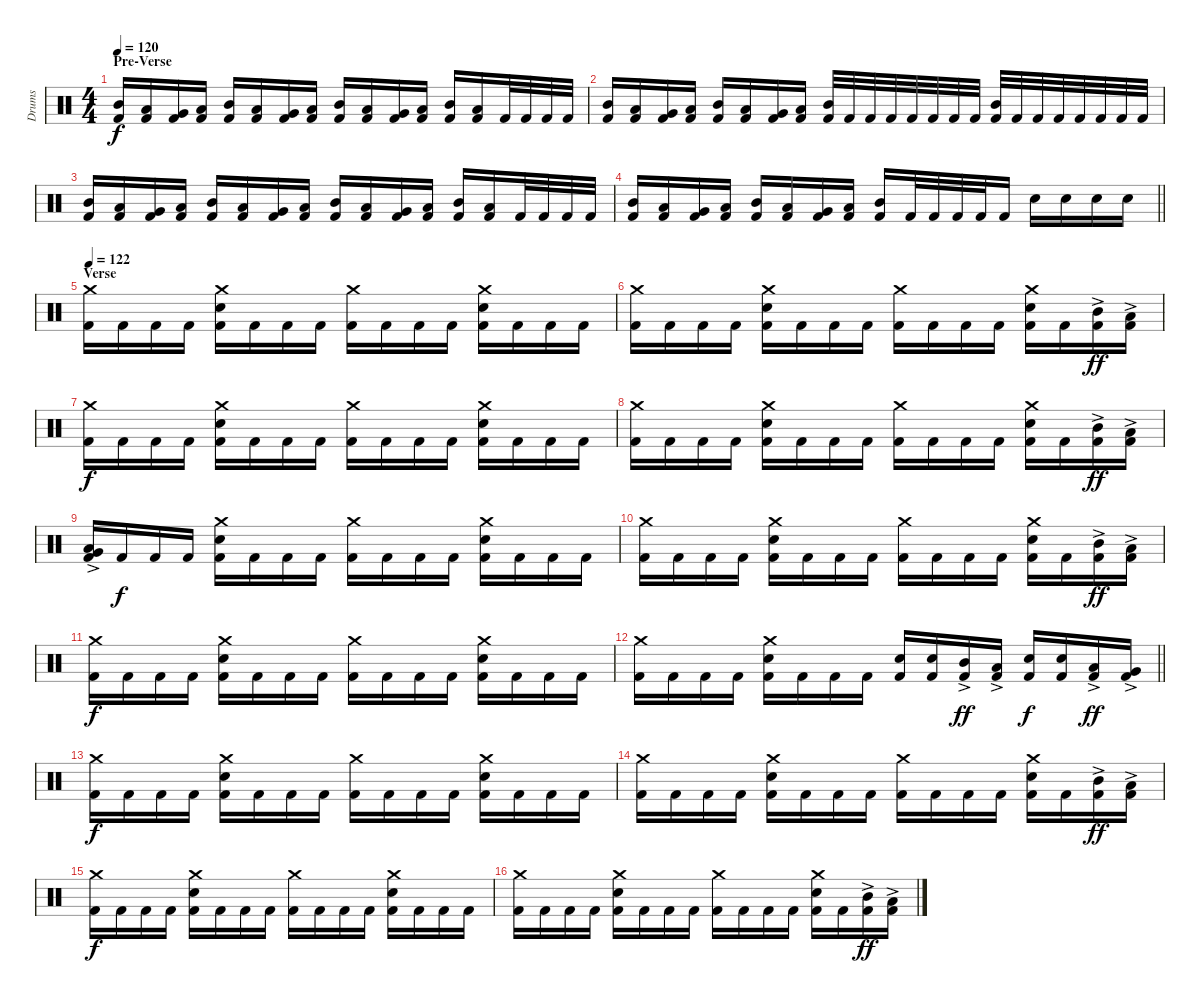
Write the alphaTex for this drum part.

\track ("Drums" "Drums") {instrument percussion}
\staff {score}
\articulation defaults
\ts (4 4)
\section ("" "Pre-Verse")
\tempo 120
\clef neutral
\ks c
("Kick (hit) 2" "Mid Tom (hit)").16{dy f volume 10} ("Kick (hit) 2" "Low Tom (hit)").16 ("Kick (hit) 2" "Very Low Tom (hit)").16 ("Kick (hit) 2" "Low Floor Tom (hit)").16 ("Kick (hit) 2" "Mid Tom (hit)").16 ("Kick (hit) 2" "Low Tom (hit)").16 ("Kick (hit) 2" "Very Low Tom (hit)").16 ("Kick (hit) 2" "Low Floor Tom (hit)").16 ("Kick (hit) 2" "Mid Tom (hit)").16 ("Kick (hit) 2" "Low Tom (hit)").16 ("Kick (hit) 2" "Very Low Tom (hit)").16 ("Kick (hit) 2" "Low Floor Tom (hit)").16 ("Kick (hit) 2" "Mid Tom (hit)").16 ("Kick (hit) 2" "Low Tom (hit)").16 "Kick (hit) 2".32 "Kick (hit) 2".32 "Kick (hit) 2".32 "Kick (hit) 2".32 |
("Kick (hit) 2" "Mid Tom (hit)").16 ("Kick (hit) 2" "Low Tom (hit)").16 ("Kick (hit) 2" "Very Low Tom (hit)").16 ("Kick (hit) 2" "Low Floor Tom (hit)").16 ("Kick (hit) 2" "Mid Tom (hit)").16 ("Kick (hit) 2" "Low Tom (hit)").16 ("Kick (hit) 2" "Very Low Tom (hit)").16 ("Kick (hit) 2" "Low Floor Tom (hit)").16 ("Kick (hit) 2" "Mid Tom (hit)").32 "Kick (hit) 2".32 "Kick (hit) 2".32 "Kick (hit) 2".32 "Kick (hit) 2".32 "Kick (hit) 2".32 "Kick (hit) 2".32 "Kick (hit) 2".32 ("Kick (hit) 2" "Mid Tom (hit)").32 "Kick (hit) 2".32 "Kick (hit) 2".32 "Kick (hit) 2".32 "Kick (hit) 2".32 "Kick (hit) 2".32 "Kick (hit) 2".32 "Kick (hit) 2".32 |
("Kick (hit) 2" "Mid Tom (hit)").16 ("Kick (hit) 2" "Low Tom (hit)").16 ("Kick (hit) 2" "Very Low Tom (hit)").16 ("Kick (hit) 2" "Low Floor Tom (hit)").16 ("Kick (hit) 2" "Mid Tom (hit)").16 ("Kick (hit) 2" "Low Tom (hit)").16 ("Kick (hit) 2" "Very Low Tom (hit)").16 ("Kick (hit) 2" "Low Floor Tom (hit)").16 ("Kick (hit) 2" "Mid Tom (hit)").16 ("Kick (hit) 2" "Low Tom (hit)").16 ("Kick (hit) 2" "Very Low Tom (hit)").16 ("Kick (hit) 2" "Low Floor Tom (hit)").16 ("Kick (hit) 2" "Mid Tom (hit)").16 ("Kick (hit) 2" "Low Tom (hit)").16 "Kick (hit) 2".32 "Kick (hit) 2".32 "Kick (hit) 2".32 "Kick (hit) 2".32 |
\barLineRight lightlight
("Kick (hit) 2" "Mid Tom (hit)").16 ("Kick (hit) 2" "Low Tom (hit)").16 ("Kick (hit) 2" "Very Low Tom (hit)").16 ("Kick (hit) 2" "Low Floor Tom (hit)").16 ("Kick (hit) 2" "Mid Tom (hit)").16 ("Kick (hit) 2" "Low Tom (hit)").16 ("Kick (hit) 2" "Very Low Tom (hit)").16 ("Kick (hit) 2" "Low Floor Tom (hit)").16 ("Kick (hit) 2" "Mid Tom (hit)").16 "Kick (hit) 2".32 "Kick (hit) 2".32 "Kick (hit) 2".32 "Kick (hit) 2".32 "Kick (hit) 2".16 "Snare (hit) 2".16{volume 12} "Snare (hit) 2".16 "Snare (hit) 2".16 "Snare (hit) 2".16 |
\section ("" "Verse")
\tempo 122
("Kick (hit) 2" "Crash medium (hit)").16 "Kick (hit) 2".16 "Kick (hit) 2".16 "Kick (hit) 2".16 ("Kick (hit) 2" "Snare (hit) 2" "Crash medium (hit)").16 "Kick (hit) 2".16 "Kick (hit) 2".16 "Kick (hit) 2".16 ("Kick (hit) 2" "Crash medium (hit)").16 "Kick (hit) 2".16 "Kick (hit) 2".16 "Kick (hit) 2".16 ("Kick (hit) 2" "Snare (hit) 2" "Crash medium (hit)").16 "Kick (hit) 2".16 "Kick (hit) 2".16 "Kick (hit) 2".16 |
("Kick (hit) 2" "Crash medium (hit)").16 "Kick (hit) 2".16 "Kick (hit) 2".16 "Kick (hit) 2".16 ("Kick (hit) 2" "Snare (hit) 2" "Crash medium (hit)").16 "Kick (hit) 2".16 "Kick (hit) 2".16 "Kick (hit) 2".16 ("Kick (hit) 2" "Crash medium (hit)").16 "Kick (hit) 2".16 "Kick (hit) 2".16 "Kick (hit) 2".16 ("Kick (hit) 2" "Snare (hit) 2" "Crash medium (hit)").16 "Kick (hit) 2".16 ("Kick (hit) 2" "Mid Tom (hit)"{ac}).16{dy ff} ("Kick (hit) 2" "Low Tom (hit)"{ac}).16 |
("Kick (hit) 2" "Crash medium (hit)").16{dy f} "Kick (hit) 2".16 "Kick (hit) 2".16 "Kick (hit) 2".16 ("Kick (hit) 2" "Snare (hit) 2" "Crash medium (hit)").16 "Kick (hit) 2".16 "Kick (hit) 2".16 "Kick (hit) 2".16 ("Kick (hit) 2" "Crash medium (hit)").16 "Kick (hit) 2".16 "Kick (hit) 2".16 "Kick (hit) 2".16 ("Kick (hit) 2" "Snare (hit) 2" "Crash medium (hit)").16 "Kick (hit) 2".16 "Kick (hit) 2".16 "Kick (hit) 2".16 |
("Kick (hit) 2" "Crash medium (hit)").16 "Kick (hit) 2".16 "Kick (hit) 2".16 "Kick (hit) 2".16 ("Kick (hit) 2" "Snare (hit) 2" "Crash medium (hit)").16 "Kick (hit) 2".16 "Kick (hit) 2".16 "Kick (hit) 2".16 ("Kick (hit) 2" "Crash medium (hit)").16 "Kick (hit) 2".16 "Kick (hit) 2".16 "Kick (hit) 2".16 ("Kick (hit) 2" "Snare (hit) 2" "Crash medium (hit)").16 "Kick (hit) 2".16 ("Kick (hit) 2" "Mid Tom (hit)"{ac}).16{dy ff} ("Kick (hit) 2" "Low Tom (hit)"{ac}).16 |
("Kick (hit) 2" "Low Tom (hit)"{ac} "Very Low Tom (hit)").16 "Kick (hit) 2".16{dy f} "Kick (hit) 2".16 "Kick (hit) 2".16 ("Kick (hit) 2" "Snare (hit) 2" "Crash medium (hit)").16 "Kick (hit) 2".16 "Kick (hit) 2".16 "Kick (hit) 2".16 ("Kick (hit) 2" "Crash medium (hit)").16 "Kick (hit) 2".16 "Kick (hit) 2".16 "Kick (hit) 2".16 ("Kick (hit) 2" "Snare (hit) 2" "Crash medium (hit)").16 "Kick (hit) 2".16 "Kick (hit) 2".16 "Kick (hit) 2".16 |
("Kick (hit) 2" "Crash medium (hit)").16 "Kick (hit) 2".16 "Kick (hit) 2".16 "Kick (hit) 2".16 ("Kick (hit) 2" "Snare (hit) 2" "Crash medium (hit)").16 "Kick (hit) 2".16 "Kick (hit) 2".16 "Kick (hit) 2".16 ("Kick (hit) 2" "Crash medium (hit)").16 "Kick (hit) 2".16 "Kick (hit) 2".16 "Kick (hit) 2".16 ("Kick (hit) 2" "Snare (hit) 2" "Crash medium (hit)").16 "Kick (hit) 2".16 ("Kick (hit) 2" "Mid Tom (hit)"{ac}).16{dy ff} ("Kick (hit) 2" "Low Tom (hit)"{ac}).16 |
("Kick (hit) 2" "Crash medium (hit)").16{dy f} "Kick (hit) 2".16 "Kick (hit) 2".16 "Kick (hit) 2".16 ("Kick (hit) 2" "Snare (hit) 2" "Crash medium (hit)").16 "Kick (hit) 2".16 "Kick (hit) 2".16 "Kick (hit) 2".16 ("Kick (hit) 2" "Crash medium (hit)").16 "Kick (hit) 2".16 "Kick (hit) 2".16 "Kick (hit) 2".16 ("Kick (hit) 2" "Snare (hit) 2" "Crash medium (hit)").16 "Kick (hit) 2".16 "Kick (hit) 2".16 "Kick (hit) 2".16 |
\barLineRight lightlight
("Kick (hit) 2" "Crash medium (hit)").16 "Kick (hit) 2".16 "Kick (hit) 2".16 "Kick (hit) 2".16 ("Kick (hit) 2" "Snare (hit) 2" "Crash medium (hit)").16 "Kick (hit) 2".16 "Kick (hit) 2".16 "Kick (hit) 2".16 ("Kick (hit) 2" "Snare (hit) 2").16 ("Kick (hit) 2" "Snare (hit) 2").16 ("Kick (hit) 2" "Mid Tom (hit)"{ac}).16{dy ff} ("Kick (hit) 2" "Low Tom (hit)"{ac}).16 ("Kick (hit) 2" "Snare (hit) 2").16{dy f} ("Kick (hit) 2" "Snare (hit) 2").16 ("Kick (hit) 2" "Low Tom (hit)"{ac}).16{dy ff} ("Kick (hit) 2" "Very Low Tom (hit)"{ac}).16 |
\section ("" "")
("Kick (hit) 2" "Crash medium (hit)").16{dy f} "Kick (hit) 2".16 "Kick (hit) 2".16 "Kick (hit) 2".16 ("Kick (hit) 2" "Snare (hit) 2" "Crash medium (hit)").16 "Kick (hit) 2".16 "Kick (hit) 2".16 "Kick (hit) 2".16 ("Kick (hit) 2" "Crash medium (hit)").16 "Kick (hit) 2".16 "Kick (hit) 2".16 "Kick (hit) 2".16 ("Kick (hit) 2" "Snare (hit) 2" "Crash medium (hit)").16 "Kick (hit) 2".16 "Kick (hit) 2".16 "Kick (hit) 2".16 |
("Kick (hit) 2" "Crash medium (hit)").16 "Kick (hit) 2".16 "Kick (hit) 2".16 "Kick (hit) 2".16 ("Kick (hit) 2" "Snare (hit) 2" "Crash medium (hit)").16 "Kick (hit) 2".16 "Kick (hit) 2".16 "Kick (hit) 2".16 ("Kick (hit) 2" "Crash medium (hit)").16 "Kick (hit) 2".16 "Kick (hit) 2".16 "Kick (hit) 2".16 ("Kick (hit) 2" "Snare (hit) 2" "Crash medium (hit)").16 "Kick (hit) 2".16 ("Kick (hit) 2" "Mid Tom (hit)"{ac}).16{dy ff} ("Kick (hit) 2" "Low Tom (hit)"{ac}).16 |
("Kick (hit) 2" "Crash medium (hit)").16{dy f} "Kick (hit) 2".16 "Kick (hit) 2".16 "Kick (hit) 2".16 ("Kick (hit) 2" "Snare (hit) 2" "Crash medium (hit)").16 "Kick (hit) 2".16 "Kick (hit) 2".16 "Kick (hit) 2".16 ("Kick (hit) 2" "Crash medium (hit)").16 "Kick (hit) 2".16 "Kick (hit) 2".16 "Kick (hit) 2".16 ("Kick (hit) 2" "Snare (hit) 2" "Crash medium (hit)").16 "Kick (hit) 2".16 "Kick (hit) 2".16 "Kick (hit) 2".16 |
("Kick (hit) 2" "Crash medium (hit)").16 "Kick (hit) 2".16 "Kick (hit) 2".16 "Kick (hit) 2".16 ("Kick (hit) 2" "Snare (hit) 2" "Crash medium (hit)").16 "Kick (hit) 2".16 "Kick (hit) 2".16 "Kick (hit) 2".16 ("Kick (hit) 2" "Crash medium (hit)").16 "Kick (hit) 2".16 "Kick (hit) 2".16 "Kick (hit) 2".16 ("Kick (hit) 2" "Snare (hit) 2" "Crash medium (hit)").16 "Kick (hit) 2".16 ("Kick (hit) 2" "Mid Tom (hit)"{ac}).16{dy ff} ("Kick (hit) 2" "Low Tom (hit)"{ac}).16
